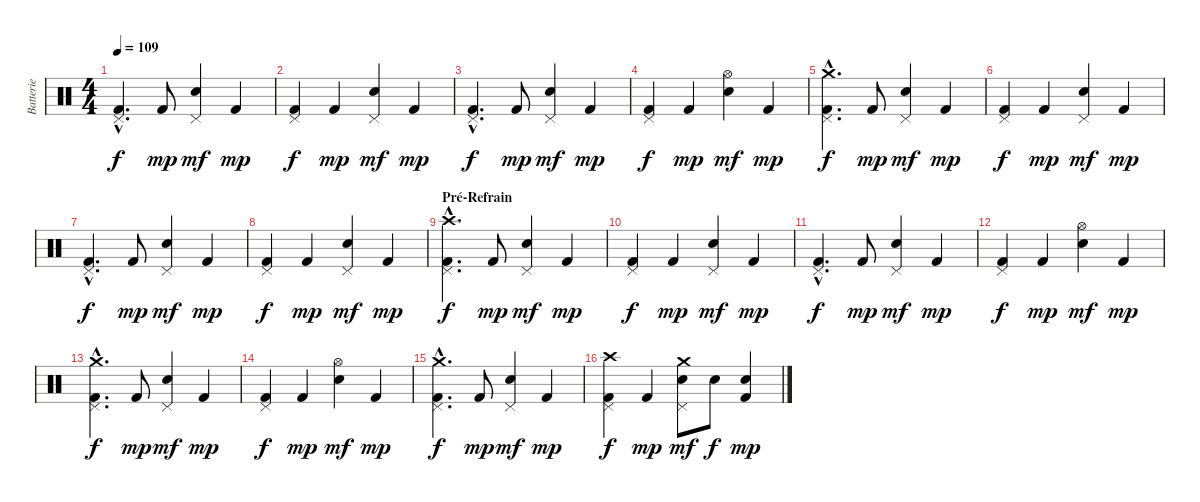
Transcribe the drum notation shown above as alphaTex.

\track ("Batterie" "Batterie") {instrument percussion}
\staff {score}
\articulation defaults
\ts (4 4)
\tempo 109
\clef neutral
\ks c
("Pedal Hi-Hat (hit)"{hac} "Kick (hit) 2"{hac}).4{d dy f} "Kick (hit) 2".8{dy mp} ("Pedal Hi-Hat (hit)" "Electric Snare (hit)").4{dy mf} "Kick (hit) 2".4{dy mp} |
("Pedal Hi-Hat (hit)" "Kick (hit) 2").4{dy f} "Kick (hit) 2".4{dy mp} ("Pedal Hi-Hat (hit)" "Electric Snare (hit)").4{dy mf} "Kick (hit) 2".4{dy mp} |
("Pedal Hi-Hat (hit)"{hac} "Kick (hit) 2"{hac}).4{d dy f} "Kick (hit) 2".8{dy mp} ("Pedal Hi-Hat (hit)" "Electric Snare (hit)").4{dy mf} "Kick (hit) 2".4{dy mp} |
("Pedal Hi-Hat (hit)" "Kick (hit) 2").4{dy f} "Kick (hit) 2".4{dy mp} ("Hi-Hat (open)" "Electric Snare (hit)").4{dy mf} "Kick (hit) 2".4{dy mp} |
("Pedal Hi-Hat (hit)"{hac} "Crash medium (hit)"{hac} "Kick (hit) 2"{hac}).4{d dy f} "Kick (hit) 2".8{dy mp} ("Pedal Hi-Hat (hit)" "Electric Snare (hit)").4{dy mf} "Kick (hit) 2".4{dy mp} |
("Pedal Hi-Hat (hit)" "Kick (hit) 2").4{dy f} "Kick (hit) 2".4{dy mp} ("Pedal Hi-Hat (hit)" "Electric Snare (hit)").4{dy mf} "Kick (hit) 2".4{dy mp} |
("Pedal Hi-Hat (hit)"{hac} "Kick (hit) 2"{hac}).4{d dy f} "Kick (hit) 2".8{dy mp} ("Pedal Hi-Hat (hit)" "Electric Snare (hit)").4{dy mf} "Kick (hit) 2".4{dy mp} |
("Pedal Hi-Hat (hit)" "Kick (hit) 2").4{dy f} "Kick (hit) 2".4{dy mp} ("Pedal Hi-Hat (hit)" "Electric Snare (hit)").4{dy mf} "Kick (hit) 2".4{dy mp} |
\section ("" "Pré-Refrain")
("Pedal Hi-Hat (hit)"{hac} "Crash high (hit)"{hac} "Kick (hit) 2"{hac}).4{d dy f} "Kick (hit) 2".8{dy mp} ("Pedal Hi-Hat (hit)" "Electric Snare (hit)").4{dy mf} "Kick (hit) 2".4{dy mp} |
("Pedal Hi-Hat (hit)" "Kick (hit) 2").4{dy f} "Kick (hit) 2".4{dy mp} ("Pedal Hi-Hat (hit)" "Electric Snare (hit)").4{dy mf} "Kick (hit) 2".4{dy mp} |
("Pedal Hi-Hat (hit)"{hac} "Kick (hit) 2"{hac}).4{d dy f} "Kick (hit) 2".8{dy mp} ("Pedal Hi-Hat (hit)" "Electric Snare (hit)").4{dy mf} "Kick (hit) 2".4{dy mp} |
("Pedal Hi-Hat (hit)" "Kick (hit) 2").4{dy f} "Kick (hit) 2".4{dy mp} ("Hi-Hat (open)" "Electric Snare (hit)").4{dy mf} "Kick (hit) 2".4{dy mp} |
("Pedal Hi-Hat (hit)"{hac} "Crash medium (hit)"{hac} "Kick (hit) 2"{hac}).4{d dy f} "Kick (hit) 2".8{dy mp} ("Pedal Hi-Hat (hit)" "Electric Snare (hit)").4{dy mf} "Kick (hit) 2".4{dy mp} |
("Pedal Hi-Hat (hit)" "Kick (hit) 2").4{dy f} "Kick (hit) 2".4{dy mp} ("Hi-Hat (open)" "Electric Snare (hit)").4{dy mf} "Kick (hit) 2".4{dy mp} |
("Pedal Hi-Hat (hit)"{hac} "Crash medium (hit)"{hac} "Kick (hit) 2"{hac}).4{d dy f} "Kick (hit) 2".8{dy mp} ("Pedal Hi-Hat (hit)" "Electric Snare (hit)").4{dy mf} "Kick (hit) 2".4{dy mp} |
("Pedal Hi-Hat (hit)" "Crash high (hit)" "Kick (hit) 2").4{dy f} "Kick (hit) 2".4{dy mp} ("Pedal Hi-Hat (hit)" "Crash medium (hit)" "Electric Snare (hit)").8{dy mf} "Electric Snare (hit)".8{dy f} ("Electric Snare (hit)" "Kick (hit) 2").4{dy mp}
